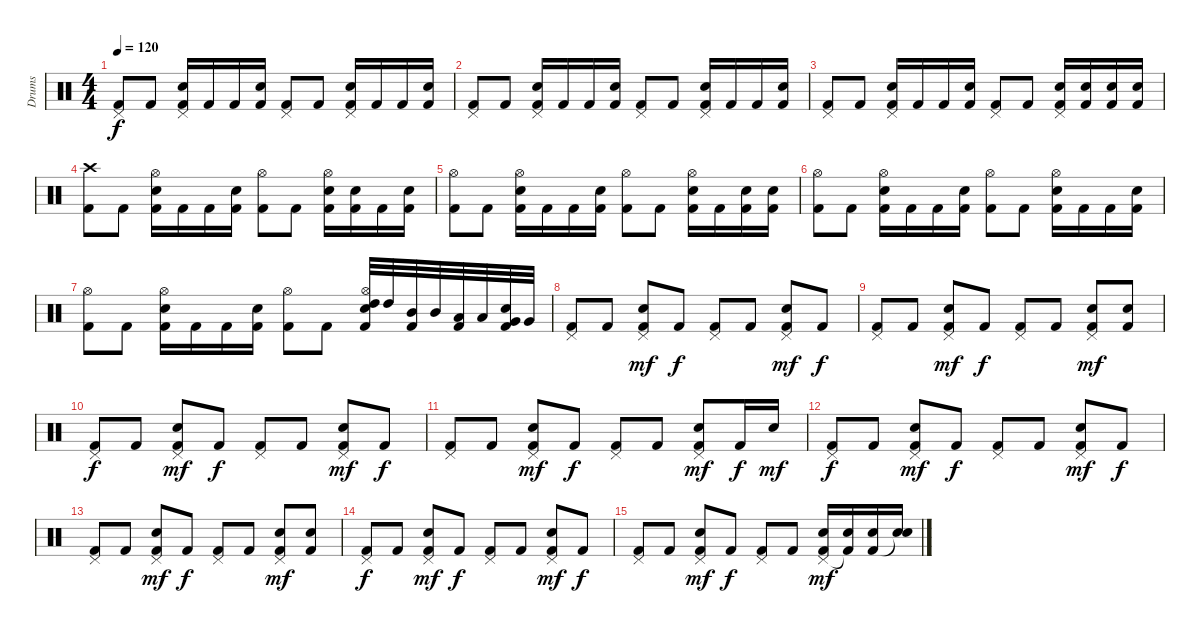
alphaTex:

\track ("Drums" "Drums") {instrument percussion}
\staff {score}
\articulation defaults
\ts (4 4)
\tempo 120
\clef neutral
\ks c
("Pedal Hi-Hat (hit)" "Kick (hit) 2").8{dy f} "Kick (hit) 2".8 ("Pedal Hi-Hat (hit)" "Electric Snare (hit)" "Kick (hit) 2").16 "Kick (hit) 2".16 "Kick (hit) 2".16 ("Electric Snare (hit)" "Kick (hit) 2").16 ("Pedal Hi-Hat (hit)" "Kick (hit) 2").8 "Kick (hit) 2".8 ("Pedal Hi-Hat (hit)" "Electric Snare (hit)" "Kick (hit) 2").16 "Kick (hit) 2".16 "Kick (hit) 2".16 ("Electric Snare (hit)" "Kick (hit) 2").16 |
("Pedal Hi-Hat (hit)" "Kick (hit) 2").8 "Kick (hit) 2".8 ("Pedal Hi-Hat (hit)" "Electric Snare (hit)" "Kick (hit) 2").16 "Kick (hit) 2".16 "Kick (hit) 2".16 ("Electric Snare (hit)" "Kick (hit) 2").16 ("Pedal Hi-Hat (hit)" "Kick (hit) 2").8 "Kick (hit) 2".8 ("Pedal Hi-Hat (hit)" "Electric Snare (hit)" "Kick (hit) 2").16 "Kick (hit) 2".16 "Kick (hit) 2".16 ("Electric Snare (hit)" "Kick (hit) 2").16 |
("Pedal Hi-Hat (hit)" "Kick (hit) 2").8 "Kick (hit) 2".8 ("Pedal Hi-Hat (hit)" "Electric Snare (hit)" "Kick (hit) 2").16 "Kick (hit) 2".16 "Kick (hit) 2".16 ("Electric Snare (hit)" "Kick (hit) 2").16 ("Pedal Hi-Hat (hit)" "Kick (hit) 2").8 "Kick (hit) 2".8 ("Pedal Hi-Hat (hit)" "Electric Snare (hit)" "Kick (hit) 2").16 ("Electric Snare (hit)" "Kick (hit) 2").16 ("Electric Snare (hit)" "Kick (hit) 2").16 ("Electric Snare (hit)" "Kick (hit) 2").16 |
("Crash high (hit)" "Kick (hit) 2").8 "Kick (hit) 2".8 ("Hi-Hat (open)" "Electric Snare (hit)" "Kick (hit) 2").16 "Kick (hit) 2".16 "Kick (hit) 2".16 ("Electric Snare (hit)" "Kick (hit) 2").16 ("Hi-Hat (open)" "Kick (hit) 2").8 "Kick (hit) 2".8 ("Hi-Hat (open)" "Electric Snare (hit)" "Kick (hit) 2").16 ("Electric Snare (hit)" "Kick (hit) 2").16 "Kick (hit) 2".16 ("Electric Snare (hit)" "Kick (hit) 2").16 |
("Hi-Hat (open)" "Kick (hit) 2").8 "Kick (hit) 2".8 ("Hi-Hat (open)" "Electric Snare (hit)" "Kick (hit) 2").16 "Kick (hit) 2".16 "Kick (hit) 2".16 ("Electric Snare (hit)" "Kick (hit) 2").16 ("Hi-Hat (open)" "Kick (hit) 2").8 "Kick (hit) 2".8 ("Hi-Hat (open)" "Electric Snare (hit)" "Kick (hit) 2").16 "Kick (hit) 2".16 ("Electric Snare (hit)" "Kick (hit) 2").16 ("Electric Snare (hit)" "Kick (hit) 2").16 |
("Hi-Hat (open)" "Kick (hit) 2").8 "Kick (hit) 2".8 ("Hi-Hat (open)" "Electric Snare (hit)" "Kick (hit) 2").16 "Kick (hit) 2".16 "Kick (hit) 2".16 ("Electric Snare (hit)" "Kick (hit) 2").16 ("Hi-Hat (open)" "Kick (hit) 2").8 "Kick (hit) 2".8 ("Hi-Hat (open)" "Electric Snare (hit)" "Kick (hit) 2").16 "Kick (hit) 2".16 "Kick (hit) 2".16 ("Electric Snare (hit)" "Kick (hit) 2").16 |
("Hi-Hat (open)" "Kick (hit) 2").8 "Kick (hit) 2".8 ("Hi-Hat (open)" "Electric Snare (hit)" "Kick (hit) 2").16 "Kick (hit) 2".16 "Kick (hit) 2".16 ("Electric Snare (hit)" "Kick (hit) 2").16 ("Hi-Hat (open)" "Kick (hit) 2").8 "Kick (hit) 2".8 ("Hi-Hat (open)" "Electric Snare (hit)" "High Tom (hit)" "Kick (hit) 2").32 "High Tom (hit)".32 ("Mid Tom (hit)" "Kick (hit) 2").32 "Mid Tom (hit)".32 ("Low Tom (hit)" "Kick (hit) 2").32 "Low Tom (hit)".32 ("Electric Snare (hit)" "Very Low Tom (hit)" "Kick (hit) 2").32 "Very Low Tom (hit)".32 |
("Pedal Hi-Hat (hit)" "Kick (hit) 2").8 "Kick (hit) 2".8 ("Electric Snare (hit)" "Pedal Hi-Hat (hit)" "Kick (hit) 2").8{dy mf} "Kick (hit) 2".8{dy f} ("Pedal Hi-Hat (hit)" "Kick (hit) 2").8 "Kick (hit) 2".8 ("Electric Snare (hit)" "Pedal Hi-Hat (hit)" "Kick (hit) 2").8{dy mf} "Kick (hit) 2".8{dy f} |
("Pedal Hi-Hat (hit)" "Kick (hit) 2").8 "Kick (hit) 2".8 ("Electric Snare (hit)" "Pedal Hi-Hat (hit)" "Kick (hit) 2").8{dy mf} "Kick (hit) 2".8{dy f} ("Pedal Hi-Hat (hit)" "Kick (hit) 2").8 "Kick (hit) 2".8 ("Electric Snare (hit)" "Pedal Hi-Hat (hit)" "Kick (hit) 2").8{dy mf} ("Electric Snare (hit)" "Kick (hit) 2").8 |
("Pedal Hi-Hat (hit)" "Kick (hit) 2").8{dy f} "Kick (hit) 2".8 ("Electric Snare (hit)" "Pedal Hi-Hat (hit)" "Kick (hit) 2").8{dy mf} "Kick (hit) 2".8{dy f} ("Pedal Hi-Hat (hit)" "Kick (hit) 2").8 "Kick (hit) 2".8 ("Electric Snare (hit)" "Pedal Hi-Hat (hit)" "Kick (hit) 2").8{dy mf} "Kick (hit) 2".8{dy f} |
("Pedal Hi-Hat (hit)" "Kick (hit) 2").8 "Kick (hit) 2".8 ("Electric Snare (hit)" "Pedal Hi-Hat (hit)" "Kick (hit) 2").8{dy mf} "Kick (hit) 2".8{dy f} ("Pedal Hi-Hat (hit)" "Kick (hit) 2").8 "Kick (hit) 2".8 ("Electric Snare (hit)" "Pedal Hi-Hat (hit)" "Kick (hit) 2").8{dy mf} "Kick (hit) 2".16{dy f} "Electric Snare (hit)".16{dy mf} |
("Pedal Hi-Hat (hit)" "Kick (hit) 2").8{dy f} "Kick (hit) 2".8 ("Electric Snare (hit)" "Pedal Hi-Hat (hit)" "Kick (hit) 2").8{dy mf} "Kick (hit) 2".8{dy f} ("Pedal Hi-Hat (hit)" "Kick (hit) 2").8 "Kick (hit) 2".8 ("Electric Snare (hit)" "Pedal Hi-Hat (hit)" "Kick (hit) 2").8{dy mf} "Kick (hit) 2".8{dy f} |
("Pedal Hi-Hat (hit)" "Kick (hit) 2").8 "Kick (hit) 2".8 ("Electric Snare (hit)" "Pedal Hi-Hat (hit)" "Kick (hit) 2").8{dy mf} "Kick (hit) 2".8{dy f} ("Pedal Hi-Hat (hit)" "Kick (hit) 2").8 "Kick (hit) 2".8 ("Electric Snare (hit)" "Pedal Hi-Hat (hit)" "Kick (hit) 2").8{dy mf} ("Electric Snare (hit)" "Kick (hit) 2").8 |
("Pedal Hi-Hat (hit)" "Kick (hit) 2").8{dy f} "Kick (hit) 2".8 ("Electric Snare (hit)" "Pedal Hi-Hat (hit)" "Kick (hit) 2").8{dy mf} "Kick (hit) 2".8{dy f} ("Pedal Hi-Hat (hit)" "Kick (hit) 2").8 "Kick (hit) 2".8 ("Electric Snare (hit)" "Pedal Hi-Hat (hit)" "Kick (hit) 2").8{dy mf} "Kick (hit) 2".8{dy f} |
("Pedal Hi-Hat (hit)" "Kick (hit) 2").8 "Kick (hit) 2".8 ("Electric Snare (hit)" "Pedal Hi-Hat (hit)" "Kick (hit) 2").8{dy mf} "Kick (hit) 2".8{dy f} ("Pedal Hi-Hat (hit)" "Kick (hit) 2").8 "Kick (hit) 2".8 ("Electric Snare (hit)" "Pedal Hi-Hat (hit)" "Kick (hit) 2").16{dy mf} ("Electric Snare (hit)" "Kick (hit) 2"{t}).16 ("Electric Snare (hit)" "Kick (hit) 2").16 ("Electric Snare (hit)" "Snare (hit)"{t}).16
